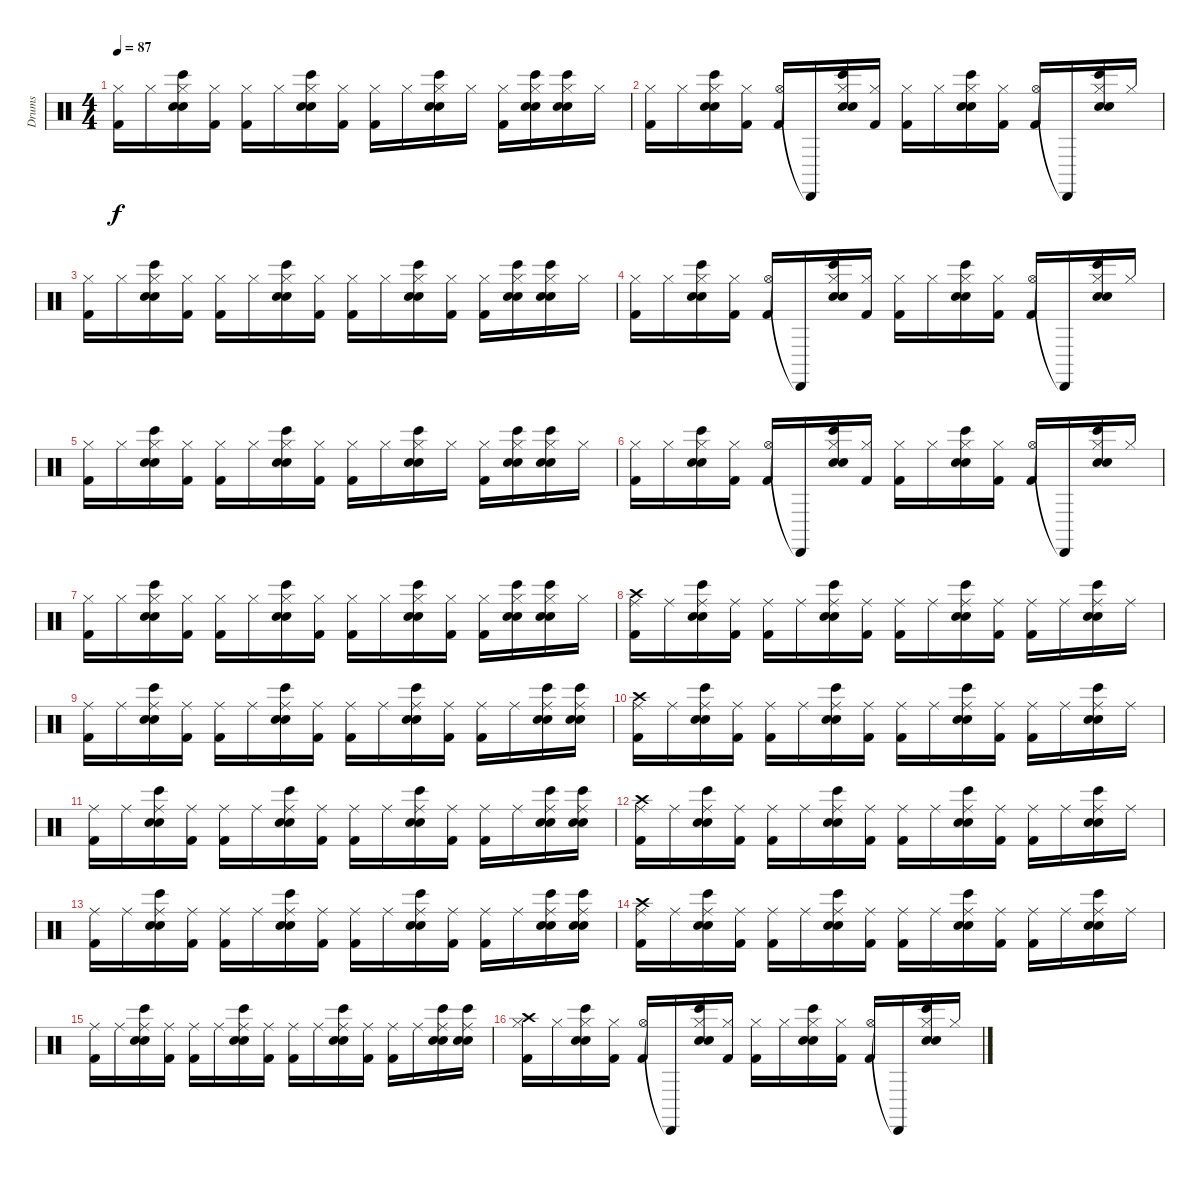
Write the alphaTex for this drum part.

\track ("Drums" "Drums") {instrument percussion}
\staff {score}
\articulation defaults
\ts (4 4)
\tempo 87
\clef neutral
\ks c
("Hi-Hat (closed)" "Kick (hit) 2").16{dy f} "Hi-Hat (closed)".16 ("Hi-Hat (closed)" "Electric Snare (hit)" "Bongo High (hit)" "Snare (hit) 2").16 ("Hi-Hat (closed)" "Kick (hit) 2").16 ("Hi-Hat (closed)" "Kick (hit) 2").16 "Hi-Hat (closed)".16 ("Hi-Hat (closed)" "Electric Snare (hit)" "Bongo High (hit)" "Snare (hit) 2").16 ("Hi-Hat (closed)" "Kick (hit) 2").16 ("Hi-Hat (closed)" "Kick (hit) 2").16 "Hi-Hat (closed)".16 ("Hi-Hat (closed)" "Electric Snare (hit)" "Bongo High (hit)" "Snare (hit) 2").16 "Hi-Hat (closed)".16 ("Hi-Hat (closed)" "Kick (hit) 2").16 ("Hi-Hat (closed)" "Electric Snare (hit)" "Bongo High (hit)" "Snare (hit) 2").16 ("Hi-Hat (closed)" "Electric Snare (hit)" "Bongo High (hit)" "Snare (hit) 2").16 "Hi-Hat (closed)".16 |
("Hi-Hat (closed)" "Kick (hit) 2").16 "Hi-Hat (closed)".16 ("Hi-Hat (closed)" "Electric Snare (hit)" "Bongo High (hit)" "Snare (hit) 2").16 ("Hi-Hat (closed)" "Kick (hit) 2").16 ("Hi-Hat (open)" "Kick (hit) 2").16 "Cabasa (hit)"{t}.16 ("Hi-Hat (closed)" "Electric Snare (hit)" "Bongo High (hit)" "Snare (hit) 2").16 ("Hi-Hat (closed)" "Kick (hit) 2").16 ("Hi-Hat (closed)" "Kick (hit) 2").16 "Hi-Hat (closed)".16 ("Hi-Hat (closed)" "Electric Snare (hit)" "Bongo High (hit)" "Snare (hit) 2").16 ("Hi-Hat (closed)" "Kick (hit) 2").16 ("Hi-Hat (open)" "Kick (hit) 2").16 "Cabasa (hit)"{t}.16 ("Hi-Hat (closed)" "Electric Snare (hit)" "Bongo High (hit)" "Snare (hit) 2").16 "Hi-Hat (closed)".16 |
("Hi-Hat (closed)" "Kick (hit) 2").16 "Hi-Hat (closed)".16 ("Hi-Hat (closed)" "Electric Snare (hit)" "Bongo High (hit)" "Snare (hit) 2").16 ("Hi-Hat (closed)" "Kick (hit) 2").16 ("Hi-Hat (closed)" "Kick (hit) 2").16 "Hi-Hat (closed)".16 ("Hi-Hat (closed)" "Electric Snare (hit)" "Bongo High (hit)" "Snare (hit) 2").16 ("Hi-Hat (closed)" "Kick (hit) 2").16 ("Hi-Hat (closed)" "Kick (hit) 2").16 "Hi-Hat (closed)".16 ("Hi-Hat (closed)" "Electric Snare (hit)" "Bongo High (hit)" "Snare (hit) 2").16 ("Hi-Hat (closed)" "Kick (hit) 2").16 ("Hi-Hat (closed)" "Kick (hit) 2").16 ("Hi-Hat (closed)" "Electric Snare (hit)" "Bongo High (hit)" "Snare (hit) 2").16 ("Hi-Hat (closed)" "Electric Snare (hit)" "Bongo High (hit)" "Snare (hit) 2").16 "Hi-Hat (closed)".16 |
("Hi-Hat (closed)" "Kick (hit) 2").16 "Hi-Hat (closed)".16 ("Hi-Hat (closed)" "Electric Snare (hit)" "Bongo High (hit)" "Snare (hit) 2").16 ("Hi-Hat (closed)" "Kick (hit) 2").16 ("Hi-Hat (open)" "Kick (hit) 2").16 "Cabasa (hit)"{t}.16 ("Hi-Hat (closed)" "Electric Snare (hit)" "Bongo High (hit)" "Snare (hit) 2").16 ("Hi-Hat (closed)" "Kick (hit) 2").16 ("Hi-Hat (closed)" "Kick (hit) 2").16 "Hi-Hat (closed)".16 ("Hi-Hat (closed)" "Electric Snare (hit)" "Bongo High (hit)" "Snare (hit) 2").16 ("Hi-Hat (closed)" "Kick (hit) 2").16 ("Hi-Hat (open)" "Kick (hit) 2").16 "Cabasa (hit)"{t}.16 ("Hi-Hat (closed)" "Electric Snare (hit)" "Bongo High (hit)" "Snare (hit) 2").16 "Hi-Hat (closed)".16 |
("Hi-Hat (closed)" "Kick (hit) 2").16 "Hi-Hat (closed)".16 ("Hi-Hat (closed)" "Electric Snare (hit)" "Bongo High (hit)" "Snare (hit) 2").16 ("Hi-Hat (closed)" "Kick (hit) 2").16 ("Hi-Hat (closed)" "Kick (hit) 2").16 "Hi-Hat (closed)".16 ("Hi-Hat (closed)" "Electric Snare (hit)" "Bongo High (hit)" "Snare (hit) 2").16 ("Hi-Hat (closed)" "Kick (hit) 2").16 ("Hi-Hat (closed)" "Kick (hit) 2").16 "Hi-Hat (closed)".16 ("Hi-Hat (closed)" "Electric Snare (hit)" "Bongo High (hit)" "Snare (hit) 2").16 "Hi-Hat (closed)".16 ("Hi-Hat (closed)" "Kick (hit) 2").16 ("Hi-Hat (closed)" "Electric Snare (hit)" "Bongo High (hit)" "Snare (hit) 2").16 ("Hi-Hat (closed)" "Electric Snare (hit)" "Bongo High (hit)" "Snare (hit) 2").16 "Hi-Hat (closed)".16 |
("Hi-Hat (closed)" "Kick (hit) 2").16 "Hi-Hat (closed)".16 ("Hi-Hat (closed)" "Electric Snare (hit)" "Bongo High (hit)" "Snare (hit) 2").16 ("Hi-Hat (closed)" "Kick (hit) 2").16 ("Hi-Hat (open)" "Kick (hit) 2").16 "Cabasa (hit)"{t}.16 ("Hi-Hat (closed)" "Electric Snare (hit)" "Bongo High (hit)" "Snare (hit) 2").16 ("Hi-Hat (closed)" "Kick (hit) 2").16 ("Hi-Hat (closed)" "Kick (hit) 2").16 "Hi-Hat (closed)".16 ("Hi-Hat (closed)" "Electric Snare (hit)" "Bongo High (hit)" "Snare (hit) 2").16 ("Hi-Hat (closed)" "Kick (hit) 2").16 ("Hi-Hat (open)" "Kick (hit) 2").16 "Cabasa (hit)"{t}.16 ("Hi-Hat (closed)" "Electric Snare (hit)" "Bongo High (hit)" "Snare (hit) 2").16 "Hi-Hat (closed)".16 |
("Hi-Hat (closed)" "Kick (hit) 2").16 "Hi-Hat (closed)".16 ("Hi-Hat (closed)" "Electric Snare (hit)" "Bongo High (hit)" "Snare (hit) 2").16 ("Hi-Hat (closed)" "Kick (hit) 2").16 ("Hi-Hat (closed)" "Kick (hit) 2").16 "Hi-Hat (closed)".16 ("Hi-Hat (closed)" "Electric Snare (hit)" "Bongo High (hit)" "Snare (hit) 2").16 ("Hi-Hat (closed)" "Kick (hit) 2").16 ("Hi-Hat (closed)" "Kick (hit) 2").16 "Hi-Hat (closed)".16 ("Hi-Hat (closed)" "Electric Snare (hit)" "Bongo High (hit)" "Snare (hit) 2").16 ("Hi-Hat (closed)" "Kick (hit) 2").16 ("Hi-Hat (closed)" "Kick (hit) 2").16 ("Hi-Hat (closed)" "Electric Snare (hit)" "Bongo High (hit)" "Snare (hit) 2").16 ("Hi-Hat (closed)" "Electric Snare (hit)" "Bongo High (hit)" "Snare (hit) 2").16 "Hi-Hat (closed)".16 |
("Crash high (hit)" "Ride (middle)" "Kick (hit) 2").16 "Ride (middle)".16 ("Ride (middle)" "Electric Snare (hit)" "Bongo High (hit)" "Snare (hit) 2").16 ("Ride (middle)" "Kick (hit) 2").16 ("Ride (middle)" "Kick (hit) 2").16 "Ride (middle)".16 ("Ride (middle)" "Electric Snare (hit)" "Bongo High (hit)" "Snare (hit) 2").16 ("Ride (middle)" "Kick (hit) 2").16 ("Ride (middle)" "Kick (hit) 2").16 "Ride (middle)".16 ("Ride (middle)" "Electric Snare (hit)" "Bongo High (hit)" "Snare (hit) 2").16 ("Ride (middle)" "Kick (hit) 2").16 ("Ride (middle)" "Kick (hit) 2").16 "Ride (middle)".16 ("Ride (middle)" "Electric Snare (hit)" "Bongo High (hit)" "Snare (hit) 2").16 "Ride (middle)".16 |
("Ride (middle)" "Kick (hit) 2").16 "Ride (middle)".16 ("Ride (middle)" "Electric Snare (hit)" "Bongo High (hit)" "Snare (hit) 2").16 ("Ride (middle)" "Kick (hit) 2").16 ("Ride (middle)" "Kick (hit) 2").16 "Ride (middle)".16 ("Ride (middle)" "Electric Snare (hit)" "Bongo High (hit)" "Snare (hit) 2").16 ("Ride (middle)" "Kick (hit) 2").16 ("Ride (middle)" "Kick (hit) 2").16 "Ride (middle)".16 ("Ride (middle)" "Electric Snare (hit)" "Bongo High (hit)" "Snare (hit) 2").16 ("Ride (middle)" "Kick (hit) 2").16 ("Ride (middle)" "Kick (hit) 2").16 "Ride (middle)".16 ("Ride (middle)" "Electric Snare (hit)" "Bongo High (hit)" "Snare (hit) 2").16 ("Ride (middle)" "Electric Snare (hit)" "Bongo High (hit)" "Snare (hit) 2").16 |
("Crash high (hit)" "Ride (middle)" "Kick (hit) 2").16 "Ride (middle)".16 ("Ride (middle)" "Electric Snare (hit)" "Bongo High (hit)" "Snare (hit) 2").16 ("Ride (middle)" "Kick (hit) 2").16 ("Ride (middle)" "Kick (hit) 2").16 "Ride (middle)".16 ("Ride (middle)" "Electric Snare (hit)" "Bongo High (hit)" "Snare (hit) 2").16 ("Ride (middle)" "Kick (hit) 2").16 ("Ride (middle)" "Kick (hit) 2").16 "Ride (middle)".16 ("Ride (middle)" "Electric Snare (hit)" "Bongo High (hit)" "Snare (hit) 2").16 ("Ride (middle)" "Kick (hit) 2").16 ("Ride (middle)" "Kick (hit) 2").16 "Ride (middle)".16 ("Ride (middle)" "Electric Snare (hit)" "Bongo High (hit)" "Snare (hit) 2").16 "Ride (middle)".16 |
("Ride (middle)" "Kick (hit) 2").16 "Ride (middle)".16 ("Ride (middle)" "Electric Snare (hit)" "Bongo High (hit)" "Snare (hit) 2").16 ("Ride (middle)" "Kick (hit) 2").16 ("Ride (middle)" "Kick (hit) 2").16 "Ride (middle)".16 ("Ride (middle)" "Electric Snare (hit)" "Bongo High (hit)" "Snare (hit) 2").16 ("Ride (middle)" "Kick (hit) 2").16 ("Ride (middle)" "Kick (hit) 2").16 "Ride (middle)".16 ("Ride (middle)" "Electric Snare (hit)" "Bongo High (hit)" "Snare (hit) 2").16 ("Ride (middle)" "Kick (hit) 2").16 ("Ride (middle)" "Kick (hit) 2").16 "Ride (middle)".16 ("Ride (middle)" "Electric Snare (hit)" "Bongo High (hit)" "Snare (hit) 2").16 ("Ride (middle)" "Electric Snare (hit)" "Bongo High (hit)" "Snare (hit) 2").16 |
("Crash high (hit)" "Ride (middle)" "Kick (hit) 2").16 "Ride (middle)".16 ("Ride (middle)" "Electric Snare (hit)" "Bongo High (hit)" "Snare (hit) 2").16 ("Ride (middle)" "Kick (hit) 2").16 ("Ride (middle)" "Kick (hit) 2").16 "Ride (middle)".16 ("Ride (middle)" "Electric Snare (hit)" "Bongo High (hit)" "Snare (hit) 2").16 ("Ride (middle)" "Kick (hit) 2").16 ("Ride (middle)" "Kick (hit) 2").16 "Ride (middle)".16 ("Ride (middle)" "Electric Snare (hit)" "Bongo High (hit)" "Snare (hit) 2").16 ("Ride (middle)" "Kick (hit) 2").16 ("Ride (middle)" "Kick (hit) 2").16 "Ride (middle)".16 ("Ride (middle)" "Electric Snare (hit)" "Bongo High (hit)" "Snare (hit) 2").16 "Ride (middle)".16 |
("Ride (middle)" "Kick (hit) 2").16 "Ride (middle)".16 ("Ride (middle)" "Electric Snare (hit)" "Bongo High (hit)" "Snare (hit) 2").16 ("Ride (middle)" "Kick (hit) 2").16 ("Ride (middle)" "Kick (hit) 2").16 "Ride (middle)".16 ("Ride (middle)" "Electric Snare (hit)" "Bongo High (hit)" "Snare (hit) 2").16 ("Ride (middle)" "Kick (hit) 2").16 ("Ride (middle)" "Kick (hit) 2").16 "Ride (middle)".16 ("Ride (middle)" "Electric Snare (hit)" "Bongo High (hit)" "Snare (hit) 2").16 ("Ride (middle)" "Kick (hit) 2").16 ("Ride (middle)" "Kick (hit) 2").16 "Ride (middle)".16 ("Ride (middle)" "Electric Snare (hit)" "Bongo High (hit)" "Snare (hit) 2").16 ("Ride (middle)" "Electric Snare (hit)" "Bongo High (hit)" "Snare (hit) 2").16 |
("Crash high (hit)" "Ride (middle)" "Kick (hit) 2").16 "Ride (middle)".16 ("Ride (middle)" "Electric Snare (hit)" "Bongo High (hit)" "Snare (hit) 2").16 ("Ride (middle)" "Kick (hit) 2").16 ("Ride (middle)" "Kick (hit) 2").16 "Ride (middle)".16 ("Ride (middle)" "Electric Snare (hit)" "Bongo High (hit)" "Snare (hit) 2").16 ("Ride (middle)" "Kick (hit) 2").16 ("Ride (middle)" "Kick (hit) 2").16 "Ride (middle)".16 ("Ride (middle)" "Electric Snare (hit)" "Bongo High (hit)" "Snare (hit) 2").16 ("Ride (middle)" "Kick (hit) 2").16 ("Ride (middle)" "Kick (hit) 2").16 "Ride (middle)".16 ("Ride (middle)" "Electric Snare (hit)" "Bongo High (hit)" "Snare (hit) 2").16 "Ride (middle)".16 |
("Ride (middle)" "Kick (hit) 2").16 "Ride (middle)".16 ("Ride (middle)" "Electric Snare (hit)" "Bongo High (hit)" "Snare (hit) 2").16 ("Ride (middle)" "Kick (hit) 2").16 ("Ride (middle)" "Kick (hit) 2").16 "Ride (middle)".16 ("Ride (middle)" "Electric Snare (hit)" "Bongo High (hit)" "Snare (hit) 2").16 ("Ride (middle)" "Kick (hit) 2").16 ("Ride (middle)" "Kick (hit) 2").16 "Ride (middle)".16 ("Ride (middle)" "Electric Snare (hit)" "Bongo High (hit)" "Snare (hit) 2").16 ("Ride (middle)" "Kick (hit) 2").16 ("Ride (middle)" "Kick (hit) 2").16 "Ride (middle)".16 ("Ride (middle)" "Electric Snare (hit)" "Bongo High (hit)" "Snare (hit) 2").16 ("Ride (middle)" "Electric Snare (hit)" "Bongo High (hit)" "Snare (hit) 2").16 |
("Crash high (hit)" "Hi-Hat (closed)" "Kick (hit) 2").16 "Hi-Hat (closed)".16 ("Hi-Hat (closed)" "Electric Snare (hit)" "Bongo High (hit)" "Snare (hit) 2").16 ("Hi-Hat (closed)" "Kick (hit) 2").16 ("Hi-Hat (open)" "Kick (hit) 2").16 "Cabasa (hit)"{t}.16 ("Hi-Hat (closed)" "Electric Snare (hit)" "Bongo High (hit)" "Snare (hit) 2").16 ("Hi-Hat (closed)" "Kick (hit) 2").16 ("Hi-Hat (closed)" "Kick (hit) 2").16 "Hi-Hat (closed)".16 ("Hi-Hat (closed)" "Electric Snare (hit)" "Bongo High (hit)" "Snare (hit) 2").16 ("Hi-Hat (closed)" "Kick (hit) 2").16 ("Hi-Hat (open)" "Kick (hit) 2").16 "Cabasa (hit)"{t}.16 ("Hi-Hat (closed)" "Electric Snare (hit)" "Bongo High (hit)" "Snare (hit) 2").16 "Hi-Hat (closed)".16
